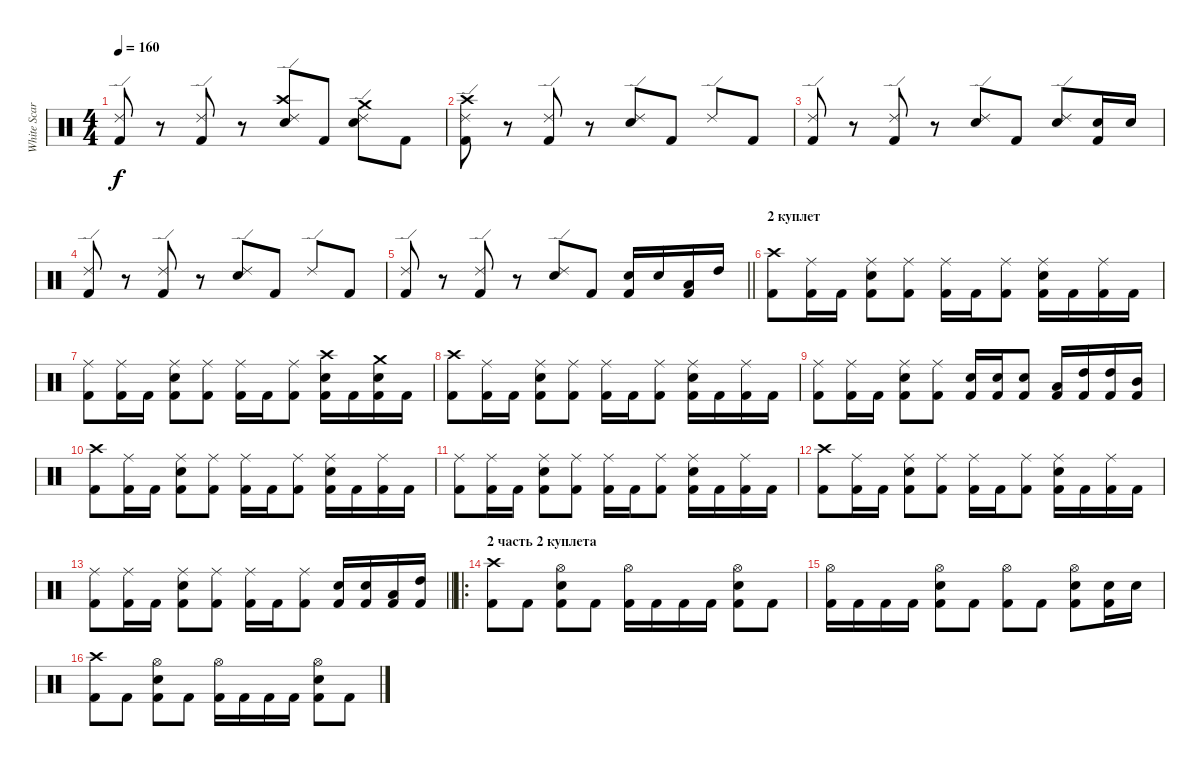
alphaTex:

\track ("White Scar" "White Scar") {instrument percussion}
\staff {score}
\articulation defaults
\ts (4 4)
\tempo 160
\clef neutral
\ks c
("Ride (edge) 2" "Kick (hit) 2").8{dy f} r.8 ("Ride (edge) 2" "Kick (hit) 2").8 r.8 ("Crash high (hit)" "Snare (hit) 2" "Ride (edge) 2").8 "Kick (hit) 2".8 ("Crash medium (hit)" "Snare (hit) 2" "Ride (edge) 2").8 "Kick (hit) 2".8 |
("Crash high (hit)" "Ride (edge) 2" "Kick (hit) 2").8 r.8 ("Ride (edge) 2" "Kick (hit) 2").8 r.8 ("Snare (hit) 2" "Ride (edge) 2").8 "Kick (hit) 2".8 "Ride (edge) 2".8 "Kick (hit) 2".8 |
("Ride (edge) 2" "Kick (hit) 2").8 r.8 ("Ride (edge) 2" "Kick (hit) 2").8 r.8 ("Snare (hit) 2" "Ride (edge) 2").8 "Kick (hit) 2".8 ("Snare (hit) 2" "Ride (edge) 2").8 ("Snare (hit) 2" "Kick (hit) 2").16 "Snare (hit) 2".16 |
("Ride (edge) 2" "Kick (hit) 2").8 r.8 ("Ride (edge) 2" "Kick (hit) 2").8 r.8 ("Snare (hit) 2" "Ride (edge) 2").8 "Kick (hit) 2".8 "Ride (edge) 2".8 "Kick (hit) 2".8 |
\barLineRight lightlight
("Ride (edge) 2" "Kick (hit) 2").8 r.8 ("Ride (edge) 2" "Kick (hit) 2").8 r.8 ("Snare (hit) 2" "Ride (edge) 2").8 "Kick (hit) 2".8 ("Snare (hit) 2" "Kick (hit) 2").16 "Snare (hit) 2".16 ("Low Tom (hit)" "Kick (hit) 2").16 "High Tom (hit)".16 |
\section ("" "2 куплет")
("Crash high (hit)" "Kick (hit) 2").8 ("Ride (middle)" "Kick (hit) 2").16 "Kick (hit) 2".16 ("Snare (hit) 2" "Ride (middle)" "Kick (hit) 2").8 ("Ride (middle)" "Kick (hit) 2").8 ("Ride (middle)" "Kick (hit) 2").16 "Kick (hit) 2".16 ("Ride (middle)" "Kick (hit) 2").8 ("Snare (hit) 2" "Ride (middle)" "Kick (hit) 2").16 "Kick (hit) 2".16 ("Ride (middle)" "Kick (hit) 2").16 "Kick (hit) 2".16 |
("Ride (middle)" "Kick (hit) 2").8 ("Ride (middle)" "Kick (hit) 2").16 "Kick (hit) 2".16 ("Snare (hit) 2" "Ride (middle)" "Kick (hit) 2").8 ("Ride (middle)" "Kick (hit) 2").8 ("Ride (middle)" "Kick (hit) 2").16 "Kick (hit) 2".16 ("Ride (middle)" "Kick (hit) 2").8 ("Snare (hit) 2" "Crash high (hit)" "Kick (hit) 2").16 "Kick (hit) 2".16 ("Snare (hit) 2" "Crash medium (hit)" "Kick (hit) 2").16 "Kick (hit) 2".16 |
("Crash high (hit)" "Kick (hit) 2").8 ("Ride (middle)" "Kick (hit) 2").16 "Kick (hit) 2".16 ("Snare (hit) 2" "Ride (middle)" "Kick (hit) 2").8 ("Ride (middle)" "Kick (hit) 2").8 ("Ride (middle)" "Kick (hit) 2").16 "Kick (hit) 2".16 ("Ride (middle)" "Kick (hit) 2").8 ("Snare (hit) 2" "Ride (middle)" "Kick (hit) 2").16 "Kick (hit) 2".16 ("Ride (middle)" "Kick (hit) 2").16 "Kick (hit) 2".16 |
("Ride (middle)" "Kick (hit) 2").8 ("Ride (middle)" "Kick (hit) 2").16 "Kick (hit) 2".16 ("Snare (hit) 2" "Ride (middle)" "Kick (hit) 2").8 ("Ride (middle)" "Kick (hit) 2").8 ("Snare (hit) 2" "Kick (hit) 2").16 ("Snare (hit) 2" "Kick (hit) 2").16 ("Snare (hit) 2" "Kick (hit) 2").8 ("Low Tom (hit)" "Kick (hit) 2").16 ("High Tom (hit)" "Kick (hit) 2").16 ("High Tom (hit)" "Kick (hit) 2").16 ("Mid Tom (hit)" "Kick (hit) 2").16 |
("Crash high (hit)" "Kick (hit) 2").8 ("Ride (middle)" "Kick (hit) 2").16 "Kick (hit) 2".16 ("Snare (hit) 2" "Ride (middle)" "Kick (hit) 2").8 ("Ride (middle)" "Kick (hit) 2").8 ("Ride (middle)" "Kick (hit) 2").16 "Kick (hit) 2".16 ("Ride (middle)" "Kick (hit) 2").8 ("Snare (hit) 2" "Ride (middle)" "Kick (hit) 2").16 "Kick (hit) 2".16 ("Ride (middle)" "Kick (hit) 2").16 "Kick (hit) 2".16 |
("Ride (middle)" "Kick (hit) 2").8 ("Ride (middle)" "Kick (hit) 2").16 "Kick (hit) 2".16 ("Snare (hit) 2" "Ride (middle)" "Kick (hit) 2").8 ("Ride (middle)" "Kick (hit) 2").8 ("Ride (middle)" "Kick (hit) 2").16 "Kick (hit) 2".16 ("Ride (middle)" "Kick (hit) 2").8 ("Snare (hit) 2" "Ride (middle)" "Kick (hit) 2").16 "Kick (hit) 2".16 ("Ride (middle)" "Kick (hit) 2").16 "Kick (hit) 2".16 |
("Crash high (hit)" "Kick (hit) 2").8 ("Ride (middle)" "Kick (hit) 2").16 "Kick (hit) 2".16 ("Snare (hit) 2" "Ride (middle)" "Kick (hit) 2").8 ("Ride (middle)" "Kick (hit) 2").8 ("Ride (middle)" "Kick (hit) 2").16 "Kick (hit) 2".16 ("Ride (middle)" "Kick (hit) 2").8 ("Snare (hit) 2" "Ride (middle)" "Kick (hit) 2").16 "Kick (hit) 2".16 ("Ride (middle)" "Kick (hit) 2").16 "Kick (hit) 2".16 |
\barLineRight lightlight
("Ride (middle)" "Kick (hit) 2").8 ("Ride (middle)" "Kick (hit) 2").16 "Kick (hit) 2".16 ("Snare (hit) 2" "Ride (middle)" "Kick (hit) 2").8 ("Ride (middle)" "Kick (hit) 2").8 ("Ride (middle)" "Kick (hit) 2").16 "Kick (hit) 2".16 ("Ride (middle)" "Kick (hit) 2").8 ("Snare (hit) 2" "Kick (hit) 2").16 ("Snare (hit) 2" "Kick (hit) 2").16 ("Low Tom (hit)" "Kick (hit) 2").16 ("High Tom (hit)" "Kick (hit) 2").16 |
\ro
\section ("" "2 часть 2 куплета")
("Crash high (hit)" "Kick (hit) 2").8 "Kick (hit) 2".8 ("Hi-Hat (open)" "Snare (hit) 2" "Kick (hit) 2").8 "Kick (hit) 2".8 ("Hi-Hat (open)" "Kick (hit) 2").16 "Kick (hit) 2".16 "Kick (hit) 2".16 "Kick (hit) 2".16 ("Hi-Hat (open)" "Snare (hit) 2" "Kick (hit) 2").8 "Kick (hit) 2".8 |
("Hi-Hat (open)" "Kick (hit) 2").16 "Kick (hit) 2".16 "Kick (hit) 2".16 "Kick (hit) 2".16 ("Hi-Hat (open)" "Snare (hit) 2" "Kick (hit) 2").8 "Kick (hit) 2".8 ("Hi-Hat (open)" "Kick (hit) 2").8 "Kick (hit) 2".8 ("Hi-Hat (open)" "Snare (hit) 2" "Kick (hit) 2").8 ("Snare (hit) 2" "Kick (hit) 2").16 "Snare (hit) 2".16 |
("Crash high (hit)" "Kick (hit) 2").8 "Kick (hit) 2".8 ("Hi-Hat (open)" "Snare (hit) 2" "Kick (hit) 2").8 "Kick (hit) 2".8 ("Hi-Hat (open)" "Kick (hit) 2").16 "Kick (hit) 2".16 "Kick (hit) 2".16 "Kick (hit) 2".16 ("Hi-Hat (open)" "Snare (hit) 2" "Kick (hit) 2").8 "Kick (hit) 2".8
